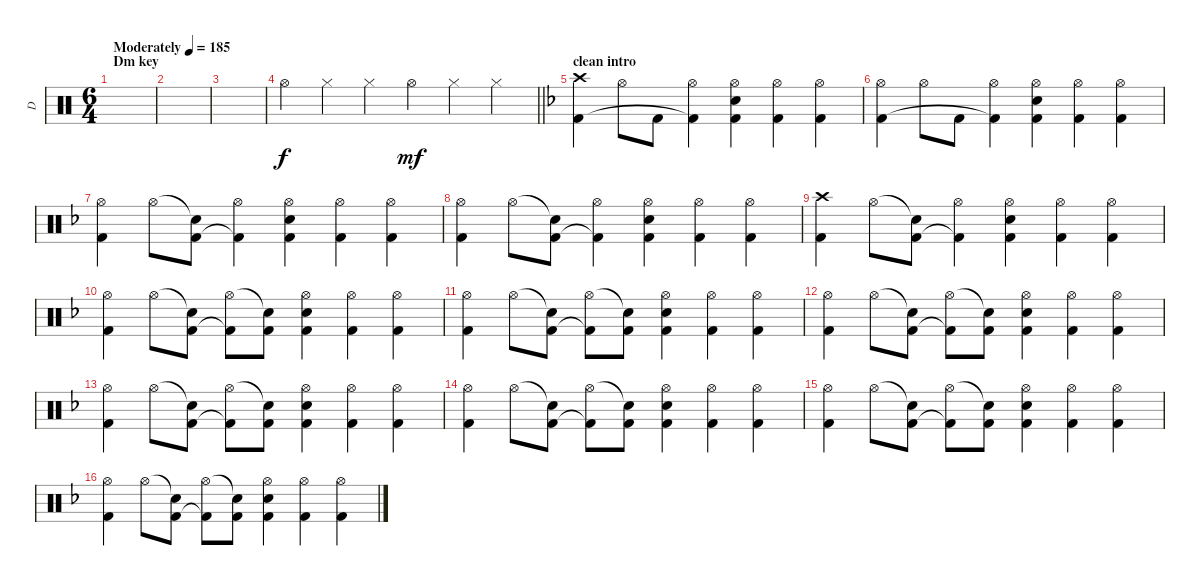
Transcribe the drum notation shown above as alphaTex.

\track ("D" "D") {instrument percussion}
\staff {score}
\articulation defaults
\ts (6 4)
\section ("" "Dm key")
\tempo (185 "Moderately")
\clef neutral
\ks c
|
|
|
\barLineRight lightlight "Hi-Hat (open)".4 "Hi-Hat (closed)".4{dy f} "Hi-Hat (closed)".4 "Hi-Hat (open)".4{dy mf} "Hi-Hat (closed)".4 "Hi-Hat (closed)".4
|
\section ("" "clean intro")
\ks dminor
("Crash high (hit)" "Kick (hit) 2").4 "Hi-Hat (open)".8 "Kick (hit) 2".8 ("Hi-Hat (open)" "Kick (hit) 2"{t}).4 ("Hi-Hat (open)" "Snare (hit) 2" "Kick (hit) 2").4 ("Hi-Hat (open)" "Kick (hit) 2").4 ("Hi-Hat (open)" "Kick (hit) 2").4 |
("Hi-Hat (open)" "Kick (hit) 2").4 "Hi-Hat (open)".8 "Kick (hit) 2".8 ("Hi-Hat (open)" "Kick (hit) 2"{t}).4 ("Hi-Hat (open)" "Snare (hit) 2" "Kick (hit) 2").4 ("Hi-Hat (open)" "Kick (hit) 2").4 ("Hi-Hat (open)" "Kick (hit) 2").4 |
("Hi-Hat (open)" "Kick (hit) 2").4 "Hi-Hat (open)".8 ("Snare (hit)"{t} "Kick (hit) 2").8 ("Hi-Hat (open)" "Kick (hit) 2"{t}).4 ("Hi-Hat (open)" "Snare (hit) 2" "Kick (hit) 2").4 ("Hi-Hat (open)" "Kick (hit) 2").4 ("Hi-Hat (open)" "Kick (hit) 2").4 |
("Hi-Hat (open)" "Kick (hit) 2").4 "Hi-Hat (open)".8 ("Snare (hit)"{t} "Kick (hit) 2").8 ("Hi-Hat (open)" "Kick (hit) 2"{t}).4 ("Hi-Hat (open)" "Snare (hit) 2" "Kick (hit) 2").4 ("Hi-Hat (open)" "Kick (hit) 2").4 ("Hi-Hat (open)" "Kick (hit) 2").4 |
("Crash high (hit)" "Kick (hit) 2").4 "Hi-Hat (open)".8 ("Snare (hit)"{t} "Kick (hit) 2").8 ("Hi-Hat (open)" "Kick (hit) 2"{t}).4 ("Hi-Hat (open)" "Snare (hit) 2" "Kick (hit) 2").4 ("Hi-Hat (open)" "Kick (hit) 2").4 ("Hi-Hat (open)" "Kick (hit) 2").4 |
("Hi-Hat (open)" "Kick (hit) 2").4 "Hi-Hat (open)".8 ("Snare (hit)"{t} "Kick (hit) 2").8 ("Hi-Hat (open)" "Kick (hit) 2"{t}).8 ("Snare (hit)"{t} "Kick (hit) 2").8 ("Hi-Hat (open)" "Snare (hit) 2" "Kick (hit) 2").4 ("Hi-Hat (open)" "Kick (hit) 2").4 ("Hi-Hat (open)" "Kick (hit) 2").4 |
("Hi-Hat (open)" "Kick (hit) 2").4 "Hi-Hat (open)".8 ("Snare (hit)"{t} "Kick (hit) 2").8 ("Hi-Hat (open)" "Kick (hit) 2"{t}).8 ("Snare (hit)"{t} "Kick (hit) 2").8 ("Hi-Hat (open)" "Snare (hit) 2" "Kick (hit) 2").4 ("Hi-Hat (open)" "Kick (hit) 2").4 ("Hi-Hat (open)" "Kick (hit) 2").4 |
("Hi-Hat (open)" "Kick (hit) 2").4 "Hi-Hat (open)".8 ("Snare (hit)"{t} "Kick (hit) 2").8 ("Hi-Hat (open)" "Kick (hit) 2"{t}).8 ("Snare (hit)"{t} "Kick (hit) 2").8 ("Hi-Hat (open)" "Snare (hit) 2" "Kick (hit) 2").4 ("Hi-Hat (open)" "Kick (hit) 2").4 ("Hi-Hat (open)" "Kick (hit) 2").4 |
("Hi-Hat (open)" "Kick (hit) 2").4 "Hi-Hat (open)".8 ("Snare (hit)"{t} "Kick (hit) 2").8 ("Hi-Hat (open)" "Kick (hit) 2"{t}).8 ("Snare (hit)"{t} "Kick (hit) 2").8 ("Hi-Hat (open)" "Snare (hit) 2" "Kick (hit) 2").4 ("Hi-Hat (open)" "Kick (hit) 2").4 ("Hi-Hat (open)" "Kick (hit) 2").4 |
("Hi-Hat (open)" "Kick (hit) 2").4 "Hi-Hat (open)".8 ("Snare (hit)"{t} "Kick (hit) 2").8 ("Hi-Hat (open)" "Kick (hit) 2"{t}).8 ("Snare (hit)"{t} "Kick (hit) 2").8 ("Hi-Hat (open)" "Snare (hit) 2" "Kick (hit) 2").4 ("Hi-Hat (open)" "Kick (hit) 2").4 ("Hi-Hat (open)" "Kick (hit) 2").4 |
("Hi-Hat (open)" "Kick (hit) 2").4 "Hi-Hat (open)".8 ("Snare (hit)"{t} "Kick (hit) 2").8 ("Hi-Hat (open)" "Kick (hit) 2"{t}).8 ("Snare (hit)"{t} "Kick (hit) 2").8 ("Hi-Hat (open)" "Snare (hit) 2" "Kick (hit) 2").4 ("Hi-Hat (open)" "Kick (hit) 2").4 ("Hi-Hat (open)" "Kick (hit) 2").4 |
("Hi-Hat (open)" "Kick (hit) 2").4 "Hi-Hat (open)".8 ("Snare (hit)"{t} "Kick (hit) 2").8 ("Hi-Hat (open)" "Kick (hit) 2"{t}).8 ("Snare (hit)"{t} "Kick (hit) 2").8 ("Hi-Hat (open)" "Snare (hit) 2" "Kick (hit) 2").4 ("Hi-Hat (open)" "Kick (hit) 2").4 ("Hi-Hat (open)" "Kick (hit) 2").4
